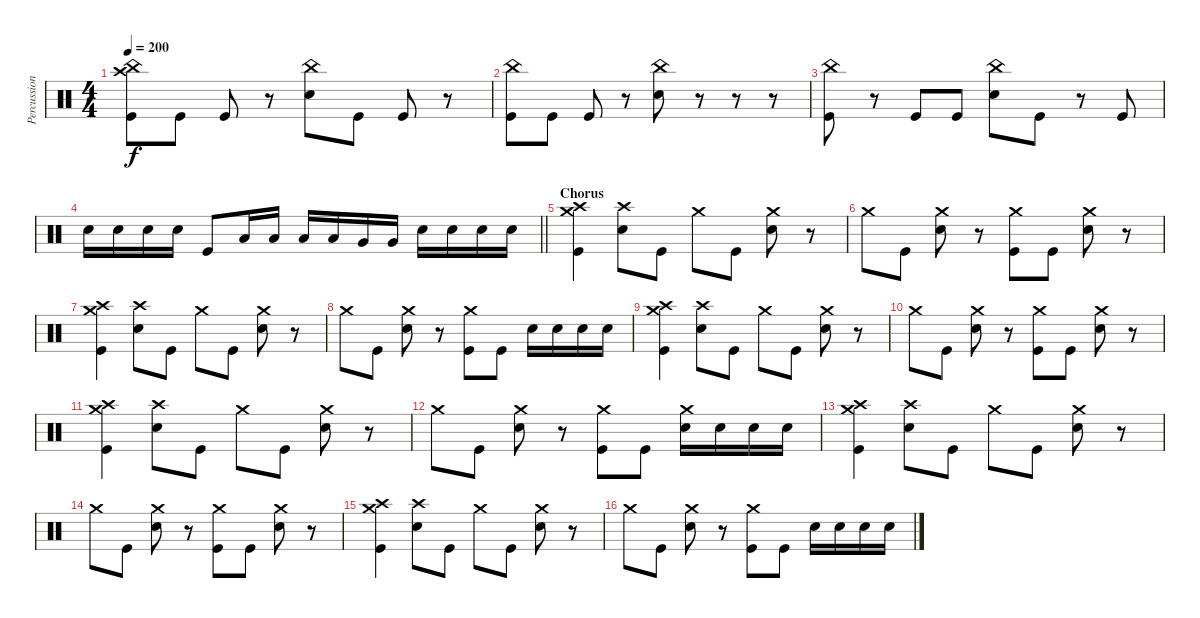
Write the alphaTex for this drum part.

\track ("Percussion" "Percussion") {instrument percussion}
\staff {score}
\articulation defaults
\ts (4 4)
\tempo 200
\clef neutral
\ks c
("Crash high (hit)" "China (hit)" "Kick (hit)").8{dy f} "Kick (hit)".8 "Kick (hit)".8 r.8 ("China (hit)" "Snare (hit) 2").8 "Kick (hit)".8 "Kick (hit)".8 r.8 |
("China (hit)" "Kick (hit)").8 "Kick (hit)".8 "Kick (hit)".8 r.8 ("China (hit)" "Snare (hit) 2").8 r.8 r.8 r.8 |
("Kick (hit)" "China (hit)").8 r.8 "Kick (hit)".8 "Kick (hit)".8 ("China (hit)" "Snare (hit) 2").8 "Kick (hit)".8 r.8 "Kick (hit)".8 |
\barLineRight lightlight "Snare (hit) 2".16 "Snare (hit) 2".16 "Snare (hit) 2".16 "Snare (hit) 2".16 "Kick (hit)".8 "Low Tom (hit)".16 "Low Tom (hit)".16 "Low Tom (hit)".16 "Low Tom (hit)".16 "Very Low Tom (hit)".16 "Very Low Tom (hit)".16 "Snare (hit) 2".16 "Snare (hit) 2".16 "Snare (hit) 2".16 "Snare (hit) 2".16
|
\section ("" "Chorus")
("Kick (hit)" "Crash medium (hit)" "Crash high (hit)").4 ("Snare (hit) 2" "Crash high (hit)").8 "Kick (hit)".8 "Crash medium (hit)".8 "Kick (hit)".8 ("Crash medium (hit)" "Snare (hit) 2").8 r.8 |
"Crash medium (hit)".8 "Kick (hit)".8 ("Crash medium (hit)" "Snare (hit) 2").8 r.8 ("Kick (hit)" "Crash medium (hit)").8 "Kick (hit)".8 ("Snare (hit) 2" "Crash medium (hit)").8 r.8 |
("Kick (hit)" "Crash medium (hit)" "Crash high (hit)").4 ("Snare (hit) 2" "Crash high (hit)").8 "Kick (hit)".8 "Crash medium (hit)".8 "Kick (hit)".8 ("Crash medium (hit)" "Snare (hit) 2").8 r.8 |
"Crash medium (hit)".8 "Kick (hit)".8 ("Crash medium (hit)" "Snare (hit) 2").8 r.8 ("Kick (hit)" "Crash medium (hit)").8 "Kick (hit)".8 "Snare (hit) 2".16 "Snare (hit) 2".16 "Snare (hit) 2".16 "Snare (hit) 2".16 |
("Kick (hit)" "Crash medium (hit)" "Crash high (hit)").4 ("Snare (hit) 2" "Crash high (hit)").8 "Kick (hit)".8 "Crash medium (hit)".8 "Kick (hit)".8 ("Crash medium (hit)" "Snare (hit) 2").8 r.8 |
"Crash medium (hit)".8 "Kick (hit)".8 ("Crash medium (hit)" "Snare (hit) 2").8 r.8 ("Kick (hit)" "Crash medium (hit)").8 "Kick (hit)".8 ("Snare (hit) 2" "Crash medium (hit)").8 r.8 |
("Kick (hit)" "Crash medium (hit)" "Crash high (hit)").4 ("Snare (hit) 2" "Crash high (hit)").8 "Kick (hit)".8 "Crash medium (hit)".8 "Kick (hit)".8 ("Crash medium (hit)" "Snare (hit) 2").8 r.8 |
"Crash medium (hit)".8 "Kick (hit)".8 ("Crash medium (hit)" "Snare (hit) 2").8 r.8 ("Kick (hit)" "Crash medium (hit)").8 "Kick (hit)".8 ("Snare (hit) 2" "Crash medium (hit)").16 "Snare (hit) 2".16 "Snare (hit) 2".16 "Snare (hit) 2".16 |
("Kick (hit)" "Crash medium (hit)" "Crash high (hit)").4 ("Snare (hit) 2" "Crash high (hit)").8 "Kick (hit)".8 "Crash medium (hit)".8 "Kick (hit)".8 ("Crash medium (hit)" "Snare (hit) 2").8 r.8 |
"Crash medium (hit)".8 "Kick (hit)".8 ("Crash medium (hit)" "Snare (hit) 2").8 r.8 ("Kick (hit)" "Crash medium (hit)").8 "Kick (hit)".8 ("Snare (hit) 2" "Crash medium (hit)").8 r.8 |
("Kick (hit)" "Crash medium (hit)" "Crash high (hit)").4 ("Snare (hit) 2" "Crash high (hit)").8 "Kick (hit)".8 "Crash medium (hit)".8 "Kick (hit)".8 ("Crash medium (hit)" "Snare (hit) 2").8 r.8 |
"Crash medium (hit)".8 "Kick (hit)".8 ("Crash medium (hit)" "Snare (hit) 2").8 r.8 ("Kick (hit)" "Crash medium (hit)").8 "Kick (hit)".8 "Snare (hit) 2".16 "Snare (hit) 2".16 "Snare (hit) 2".16 "Snare (hit) 2".16
